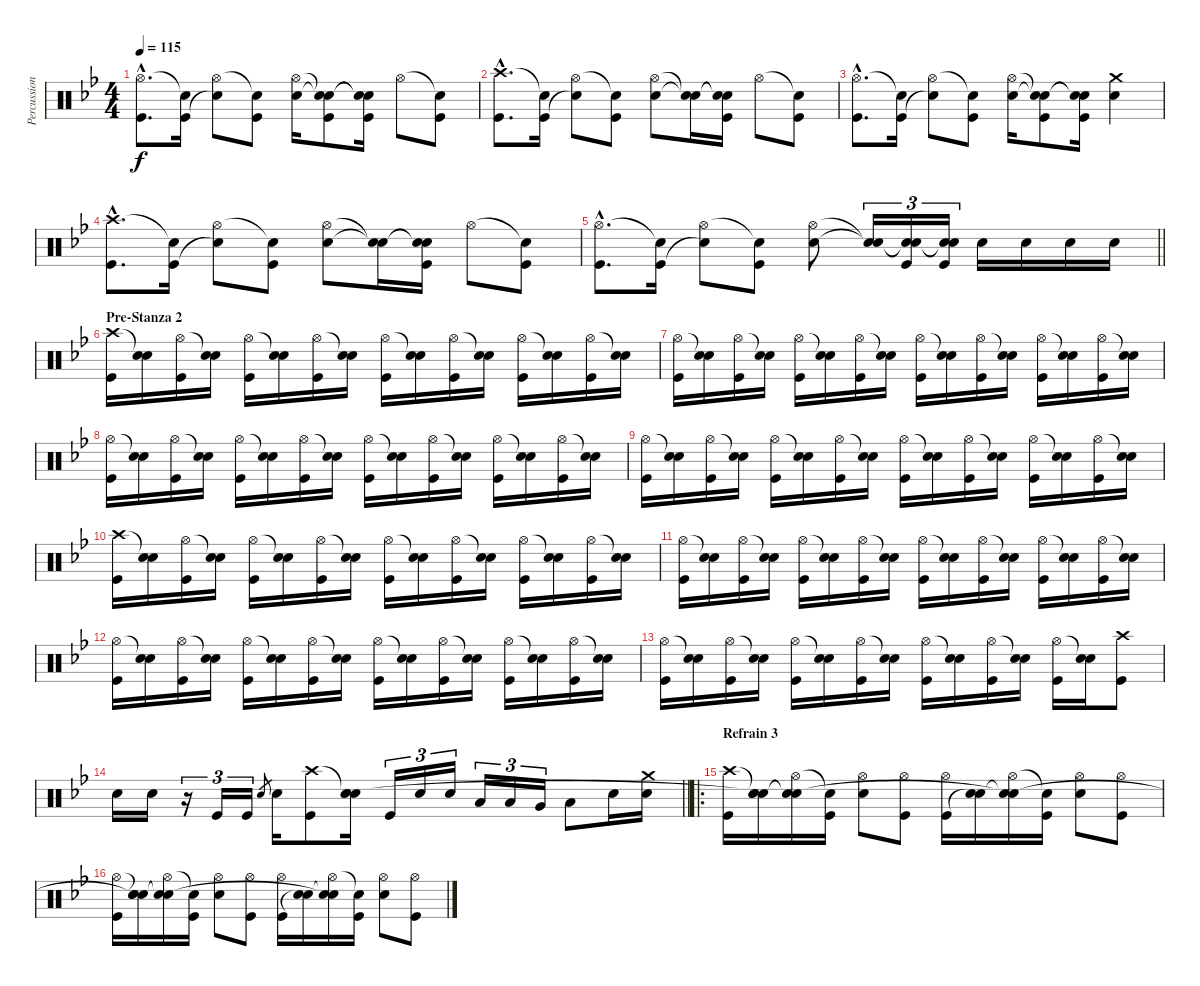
\track ("Percussion" "Percussion") {instrument percussion}
\staff {score}
\articulation defaults
\ts (4 4)
\tempo 115
\clef neutral
\ks bb
("Hi-Hat (open)"{hac} "Kick (hit)"{hac}).8{d dy f} ("Snare (hit)"{t} "Kick (hit)").16 ("Hi-Hat (open)" "Snare (hit)"{t}).8 ("Snare (hit)"{t} "Kick (hit)").8 ("Hi-Hat (open)" "Electric Snare (hit)").16 ("Snare (hit)"{t} "Snare (hit)"{t} "Kick (hit)").8 ("Snare (hit)"{t} "Snare (hit)"{t} "Kick (hit)").16 "Hi-Hat (open)".8 ("Snare (hit)"{t} "Kick (hit)").8 |
("Crash high (hit)"{hac} "Kick (hit)"{hac}).8{d} ("Snare (hit)"{t} "Kick (hit)").16 ("Hi-Hat (open)" "Snare (hit)"{t}).8 ("Snare (hit)"{t} "Kick (hit)").8 ("Hi-Hat (open)" "Electric Snare (hit)").8 ("Snare (hit)"{t} "Snare (hit)"{t}).16 ("Snare (hit)"{t} "Snare (hit)"{t} "Kick (hit)").16 "Hi-Hat (open)".8 ("Snare (hit)"{t} "Kick (hit)").8 |
("Hi-Hat (open)"{hac} "Kick (hit)"{hac}).8{d} ("Snare (hit)"{t} "Kick (hit)").16 ("Hi-Hat (open)" "Snare (hit)"{t}).8 ("Snare (hit)"{t} "Kick (hit)").8 ("Hi-Hat (open)" "Electric Snare (hit)").16 ("Snare (hit)"{t} "Snare (hit)"{t} "Kick (hit)").8 ("Snare (hit)"{t} "Snare (hit)"{t} "Kick (hit)").16 ("Crash medium (hit)" "Electric Snare (hit)").4 |
("Crash high (hit)"{hac} "Kick (hit)"{hac}).8{d} ("Snare (hit)"{t} "Kick (hit)").16 ("Hi-Hat (open)" "Snare (hit)"{t}).8 ("Snare (hit)"{t} "Kick (hit)").8 ("Hi-Hat (open)" "Electric Snare (hit)").8 ("Snare (hit)"{t} "Snare (hit)"{t}).16 ("Snare (hit)"{t} "Snare (hit)"{t} "Kick (hit)").16 "Hi-Hat (open)".8 ("Snare (hit)"{t} "Kick (hit)").8 |
\barLineRight lightlight
("Hi-Hat (open)"{hac} "Kick (hit)"{hac}).8{d} ("Snare (hit)"{t} "Kick (hit)").16 ("Hi-Hat (open)" "Snare (hit)"{t}).8 ("Snare (hit)"{t} "Kick (hit)").8 ("Hi-Hat (open)" "Electric Snare (hit)").8 ("Snare (hit)"{t} "Snare (hit)"{t}).16{tu (3 2)} ("Snare (hit)"{t} "Snare (hit)"{t} "Kick (hit)").16{tu (3 2)} ("Snare (hit)"{t} "Snare (hit)"{t} "Kick (hit)").16{tu (3 2)} "Electric Snare (hit)".16 "Electric Snare (hit)".16 "Electric Snare (hit)".16 "Electric Snare (hit)".16 |
\section ("" "Pre-Stanza 2")
("Crash high (hit)" "Kick (hit)").16 ("Snare (hit)"{t} "Electric Snare (hit)").16 ("Hi-Hat (open)" "Kick (hit)").16 ("Snare (hit)"{t} "Electric Snare (hit)").16 ("Hi-Hat (open)" "Kick (hit)").16 ("Snare (hit)"{t} "Electric Snare (hit)").16 ("Hi-Hat (open)" "Kick (hit)").16 ("Snare (hit)"{t} "Electric Snare (hit)").16 ("Hi-Hat (open)" "Kick (hit)").16 ("Snare (hit)"{t} "Electric Snare (hit)").16 ("Hi-Hat (open)" "Kick (hit)").16 ("Snare (hit)"{t} "Electric Snare (hit)").16 ("Hi-Hat (open)" "Kick (hit)").16 ("Snare (hit)"{t} "Electric Snare (hit)").16 ("Hi-Hat (open)" "Kick (hit)").16 ("Snare (hit)"{t} "Electric Snare (hit)").16 |
("Hi-Hat (open)" "Kick (hit)").16 ("Snare (hit)"{t} "Electric Snare (hit)").16 ("Hi-Hat (open)" "Kick (hit)").16 ("Snare (hit)"{t} "Electric Snare (hit)").16 ("Hi-Hat (open)" "Kick (hit)").16 ("Snare (hit)"{t} "Electric Snare (hit)").16 ("Hi-Hat (open)" "Kick (hit)").16 ("Snare (hit)"{t} "Electric Snare (hit)").16 ("Hi-Hat (open)" "Kick (hit)").16 ("Snare (hit)"{t} "Electric Snare (hit)").16 ("Hi-Hat (open)" "Kick (hit)").16 ("Snare (hit)"{t} "Electric Snare (hit)").16 ("Hi-Hat (open)" "Kick (hit)").16 ("Snare (hit)"{t} "Electric Snare (hit)").16 ("Hi-Hat (open)" "Kick (hit)").16 ("Snare (hit)"{t} "Electric Snare (hit)").16 |
("Hi-Hat (open)" "Kick (hit)").16 ("Snare (hit)"{t} "Electric Snare (hit)").16 ("Hi-Hat (open)" "Kick (hit)").16 ("Snare (hit)"{t} "Electric Snare (hit)").16 ("Hi-Hat (open)" "Kick (hit)").16 ("Snare (hit)"{t} "Electric Snare (hit)").16 ("Hi-Hat (open)" "Kick (hit)").16 ("Snare (hit)"{t} "Electric Snare (hit)").16 ("Hi-Hat (open)" "Kick (hit)").16 ("Snare (hit)"{t} "Electric Snare (hit)").16 ("Hi-Hat (open)" "Kick (hit)").16 ("Snare (hit)"{t} "Electric Snare (hit)").16 ("Hi-Hat (open)" "Kick (hit)").16 ("Snare (hit)"{t} "Electric Snare (hit)").16 ("Hi-Hat (open)" "Kick (hit)").16 ("Snare (hit)"{t} "Electric Snare (hit)").16 |
("Hi-Hat (open)" "Kick (hit)").16 ("Snare (hit)"{t} "Electric Snare (hit)").16 ("Hi-Hat (open)" "Kick (hit)").16 ("Snare (hit)"{t} "Electric Snare (hit)").16 ("Hi-Hat (open)" "Kick (hit)").16 ("Snare (hit)"{t} "Electric Snare (hit)").16 ("Hi-Hat (open)" "Kick (hit)").16 ("Snare (hit)"{t} "Electric Snare (hit)").16 ("Hi-Hat (open)" "Kick (hit)").16 ("Snare (hit)"{t} "Electric Snare (hit)").16 ("Hi-Hat (open)" "Kick (hit)").16 ("Snare (hit)"{t} "Electric Snare (hit)").16 ("Hi-Hat (open)" "Kick (hit)").16 ("Snare (hit)"{t} "Electric Snare (hit)").16 ("Hi-Hat (open)" "Kick (hit)").16 ("Snare (hit)"{t} "Electric Snare (hit)").16 |
("Crash high (hit)" "Kick (hit)").16 ("Snare (hit)"{t} "Electric Snare (hit)").16 ("Hi-Hat (open)" "Kick (hit)").16 ("Snare (hit)"{t} "Electric Snare (hit)").16 ("Hi-Hat (open)" "Kick (hit)").16 ("Snare (hit)"{t} "Electric Snare (hit)").16 ("Hi-Hat (open)" "Kick (hit)").16 ("Snare (hit)"{t} "Electric Snare (hit)").16 ("Hi-Hat (open)" "Kick (hit)").16 ("Snare (hit)"{t} "Electric Snare (hit)").16 ("Hi-Hat (open)" "Kick (hit)").16 ("Snare (hit)"{t} "Electric Snare (hit)").16 ("Hi-Hat (open)" "Kick (hit)").16 ("Snare (hit)"{t} "Electric Snare (hit)").16 ("Hi-Hat (open)" "Kick (hit)").16 ("Snare (hit)"{t} "Electric Snare (hit)").16 |
("Hi-Hat (open)" "Kick (hit)").16 ("Snare (hit)"{t} "Electric Snare (hit)").16 ("Hi-Hat (open)" "Kick (hit)").16 ("Snare (hit)"{t} "Electric Snare (hit)").16 ("Hi-Hat (open)" "Kick (hit)").16 ("Snare (hit)"{t} "Electric Snare (hit)").16 ("Hi-Hat (open)" "Kick (hit)").16 ("Snare (hit)"{t} "Electric Snare (hit)").16 ("Hi-Hat (open)" "Kick (hit)").16 ("Snare (hit)"{t} "Electric Snare (hit)").16 ("Hi-Hat (open)" "Kick (hit)").16 ("Snare (hit)"{t} "Electric Snare (hit)").16 ("Hi-Hat (open)" "Kick (hit)").16 ("Snare (hit)"{t} "Electric Snare (hit)").16 ("Hi-Hat (open)" "Kick (hit)").16 ("Snare (hit)"{t} "Electric Snare (hit)").16 |
("Hi-Hat (open)" "Kick (hit)").16 ("Snare (hit)"{t} "Electric Snare (hit)").16 ("Hi-Hat (open)" "Kick (hit)").16 ("Snare (hit)"{t} "Electric Snare (hit)").16 ("Hi-Hat (open)" "Kick (hit)").16 ("Snare (hit)"{t} "Electric Snare (hit)").16 ("Hi-Hat (open)" "Kick (hit)").16 ("Snare (hit)"{t} "Electric Snare (hit)").16 ("Hi-Hat (open)" "Kick (hit)").16 ("Snare (hit)"{t} "Electric Snare (hit)").16 ("Hi-Hat (open)" "Kick (hit)").16 ("Snare (hit)"{t} "Electric Snare (hit)").16 ("Hi-Hat (open)" "Kick (hit)").16 ("Snare (hit)"{t} "Electric Snare (hit)").16 ("Hi-Hat (open)" "Kick (hit)").16 ("Snare (hit)"{t} "Electric Snare (hit)").16 |
("Hi-Hat (open)" "Kick (hit)").16 ("Snare (hit)"{t} "Electric Snare (hit)").16 ("Hi-Hat (open)" "Kick (hit)").16 ("Snare (hit)"{t} "Electric Snare (hit)").16 ("Hi-Hat (open)" "Kick (hit)").16 ("Snare (hit)"{t} "Electric Snare (hit)").16 ("Hi-Hat (open)" "Kick (hit)").16 ("Snare (hit)"{t} "Electric Snare (hit)").16 ("Hi-Hat (open)" "Kick (hit)").16 ("Snare (hit)"{t} "Electric Snare (hit)").16 ("Hi-Hat (open)" "Kick (hit)").16 ("Snare (hit)"{t} "Electric Snare (hit)").16 ("Hi-Hat (open)" "Kick (hit)").16 ("Snare (hit)"{t} "Electric Snare (hit)").16 ("Crash high (hit)" "Kick (hit)").8 |
\barLineRight lightlight "Electric Snare (hit)".16 "Electric Snare (hit)".16
r.16{tu (3 2)} "Kick (hit)".16{tu (3 2)} "Kick (hit)".16{tu (3 2)} "Electric Snare (hit)".8{gr} "Electric Snare (hit)".16 ("Crash high (hit)" "Kick (hit)").8 ("Snare (hit)"{t} "Electric Snare (hit)" "Snare (hit)").16 "Kick (hit)".16{tu (3 2)} "Electric Snare (hit)".16{tu (3 2)} "Electric Snare (hit)".16{tu (3 2)} "Low Tom (hit)".16{tu (3 2)} "Low Tom (hit)".16{tu (3 2)} "Very Low Tom (hit)".16{tu (3 2)} "Low Floor Tom (hit)".8 "Electric Snare (hit)".16 ("Crash medium (hit)" "Electric Snare (hit)").16 |
\ro
\section ("" "Refrain 3")
("Crash high (hit)" "Kick (hit)").16 ("Snare (hit)"{t} "Electric Snare (hit)" "Snare (hit)"{t}).16 ("Hi-Hat (open)" "Snare (hit)"{t} "Snare (hit)"{t}).16 ("Snare (hit)"{t} "Kick (hit)").16 ("Hi-Hat (open)" "Electric Snare (hit)").8 ("Hi-Hat (open)" "Kick (hit)").8 ("Hi-Hat (open)" "Kick (hit)").16 ("Electric Snare (hit)" "Snare (hit)"{t}).16 ("Hi-Hat (open)" "Snare (hit)"{t} "Snare (hit)"{t}).16 ("Snare (hit)"{t} "Kick (hit)").16 ("Hi-Hat (open)" "Electric Snare (hit)").8 ("Hi-Hat (open)" "Kick (hit)").8 |
("Hi-Hat (open)" "Kick (hit)").16 ("Snare (hit)"{t} "Electric Snare (hit)" "Snare (hit)"{t}).16 ("Hi-Hat (open)" "Snare (hit)"{t} "Snare (hit)"{t}).16 ("Snare (hit)"{t} "Kick (hit)").16 ("Hi-Hat (open)" "Electric Snare (hit)").8 ("Hi-Hat (open)" "Kick (hit)").8 ("Hi-Hat (open)" "Kick (hit)").16 ("Electric Snare (hit)" "Snare (hit)"{t}).16 ("Hi-Hat (open)" "Snare (hit)"{t} "Snare (hit)"{t}).16 ("Snare (hit)"{t} "Kick (hit)").16 ("Hi-Hat (open)" "Electric Snare (hit)").8 ("Hi-Hat (open)" "Kick (hit)").8
